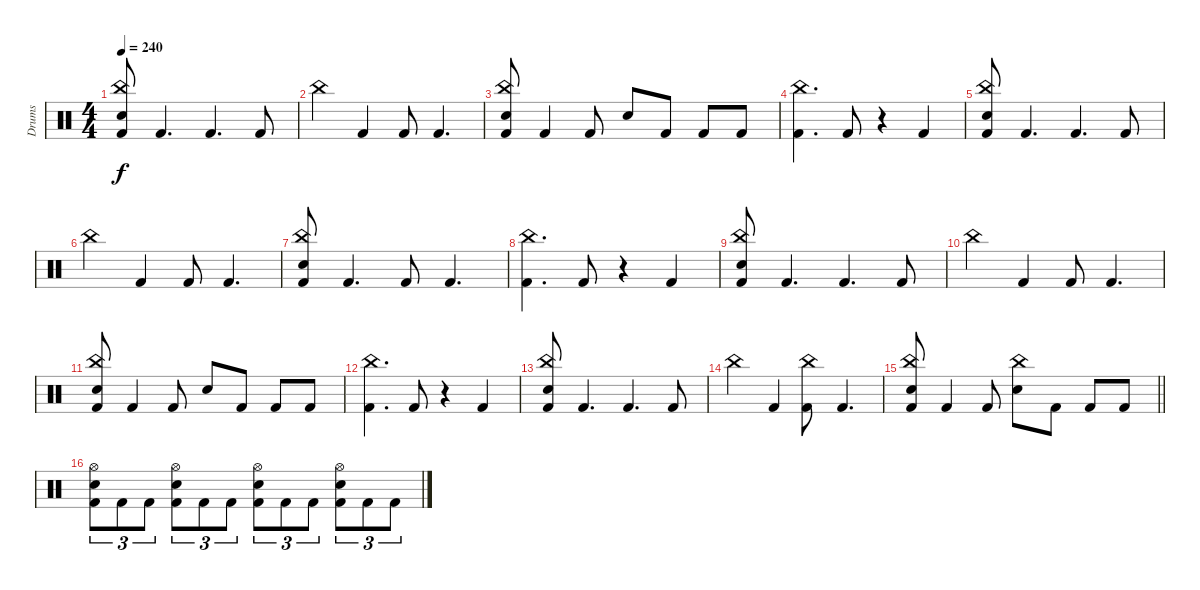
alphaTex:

\track ("Drums" "Drums") {instrument percussion}
\staff {score}
\articulation defaults
\ts (4 4)
\tempo 240
\clef neutral
\ks c
("Snare (hit) 2" "China (hit)" "Kick (hit) 2").8{dy f} "Kick (hit) 2".4{d} "Kick (hit) 2".4{d} "Kick (hit) 2".8 |
"China (hit)".4 "Kick (hit) 2".4 "Kick (hit) 2".8 "Kick (hit) 2".4{d} |
("Snare (hit) 2" "China (hit)" "Kick (hit) 2").8 "Kick (hit) 2".4 "Kick (hit) 2".8 "Snare (hit) 2".8 "Kick (hit) 2".8 "Kick (hit) 2".8 "Kick (hit) 2".8 |
("China (hit)" "Kick (hit) 2").4{d} "Kick (hit) 2".8 r.4 "Kick (hit) 2".4 |
("Snare (hit) 2" "China (hit)" "Kick (hit) 2").8 "Kick (hit) 2".4{d} "Kick (hit) 2".4{d} "Kick (hit) 2".8 |
"China (hit)".4 "Kick (hit) 2".4 "Kick (hit) 2".8 "Kick (hit) 2".4{d} |
("Snare (hit) 2" "China (hit)" "Kick (hit) 2").8 "Kick (hit) 2".4{d} "Kick (hit) 2".8 "Kick (hit) 2".4{d} |
("China (hit)" "Kick (hit) 2").4{d} "Kick (hit) 2".8 r.4 "Kick (hit) 2".4 |
("Snare (hit) 2" "China (hit)" "Kick (hit) 2").8 "Kick (hit) 2".4{d} "Kick (hit) 2".4{d} "Kick (hit) 2".8 |
"China (hit)".4 "Kick (hit) 2".4 "Kick (hit) 2".8 "Kick (hit) 2".4{d} |
("Snare (hit) 2" "China (hit)" "Kick (hit) 2").8 "Kick (hit) 2".4 "Kick (hit) 2".8 "Snare (hit) 2".8 "Kick (hit) 2".8 "Kick (hit) 2".8 "Kick (hit) 2".8 |
("China (hit)" "Kick (hit) 2").4{d} "Kick (hit) 2".8 r.4 "Kick (hit) 2".4 |
("Snare (hit) 2" "China (hit)" "Kick (hit) 2").8 "Kick (hit) 2".4{d} "Kick (hit) 2".4{d} "Kick (hit) 2".8 |
"China (hit)".4 "Kick (hit) 2".4 ("China (hit)" "Kick (hit) 2").8 "Kick (hit) 2".4{d} |
\barLineRight lightlight
("Snare (hit) 2" "China (hit)" "Kick (hit) 2").8 "Kick (hit) 2".4 "Kick (hit) 2".8 ("Snare (hit) 2" "China (hit)").8 "Kick (hit) 2".8 "Kick (hit) 2".8 "Kick (hit) 2".8 |
\section ("" "")
("Snare (hit) 2" "Hi-Hat (open)" "Kick (hit) 2").8{tu (3 2)} "Kick (hit) 2".8{tu (3 2)} "Kick (hit) 2".8{tu (3 2)} ("Snare (hit) 2" "Hi-Hat (open)" "Kick (hit) 2").8{tu (3 2)} "Kick (hit) 2".8{tu (3 2)} "Kick (hit) 2".8{tu (3 2)} ("Snare (hit) 2" "Hi-Hat (open)" "Kick (hit) 2").8{tu (3 2)} "Kick (hit) 2".8{tu (3 2)} "Kick (hit) 2".8{tu (3 2)} ("Snare (hit) 2" "Hi-Hat (open)" "Kick (hit) 2").8{tu (3 2)} "Kick (hit) 2".8{tu (3 2)} "Kick (hit) 2".8{tu (3 2)}
